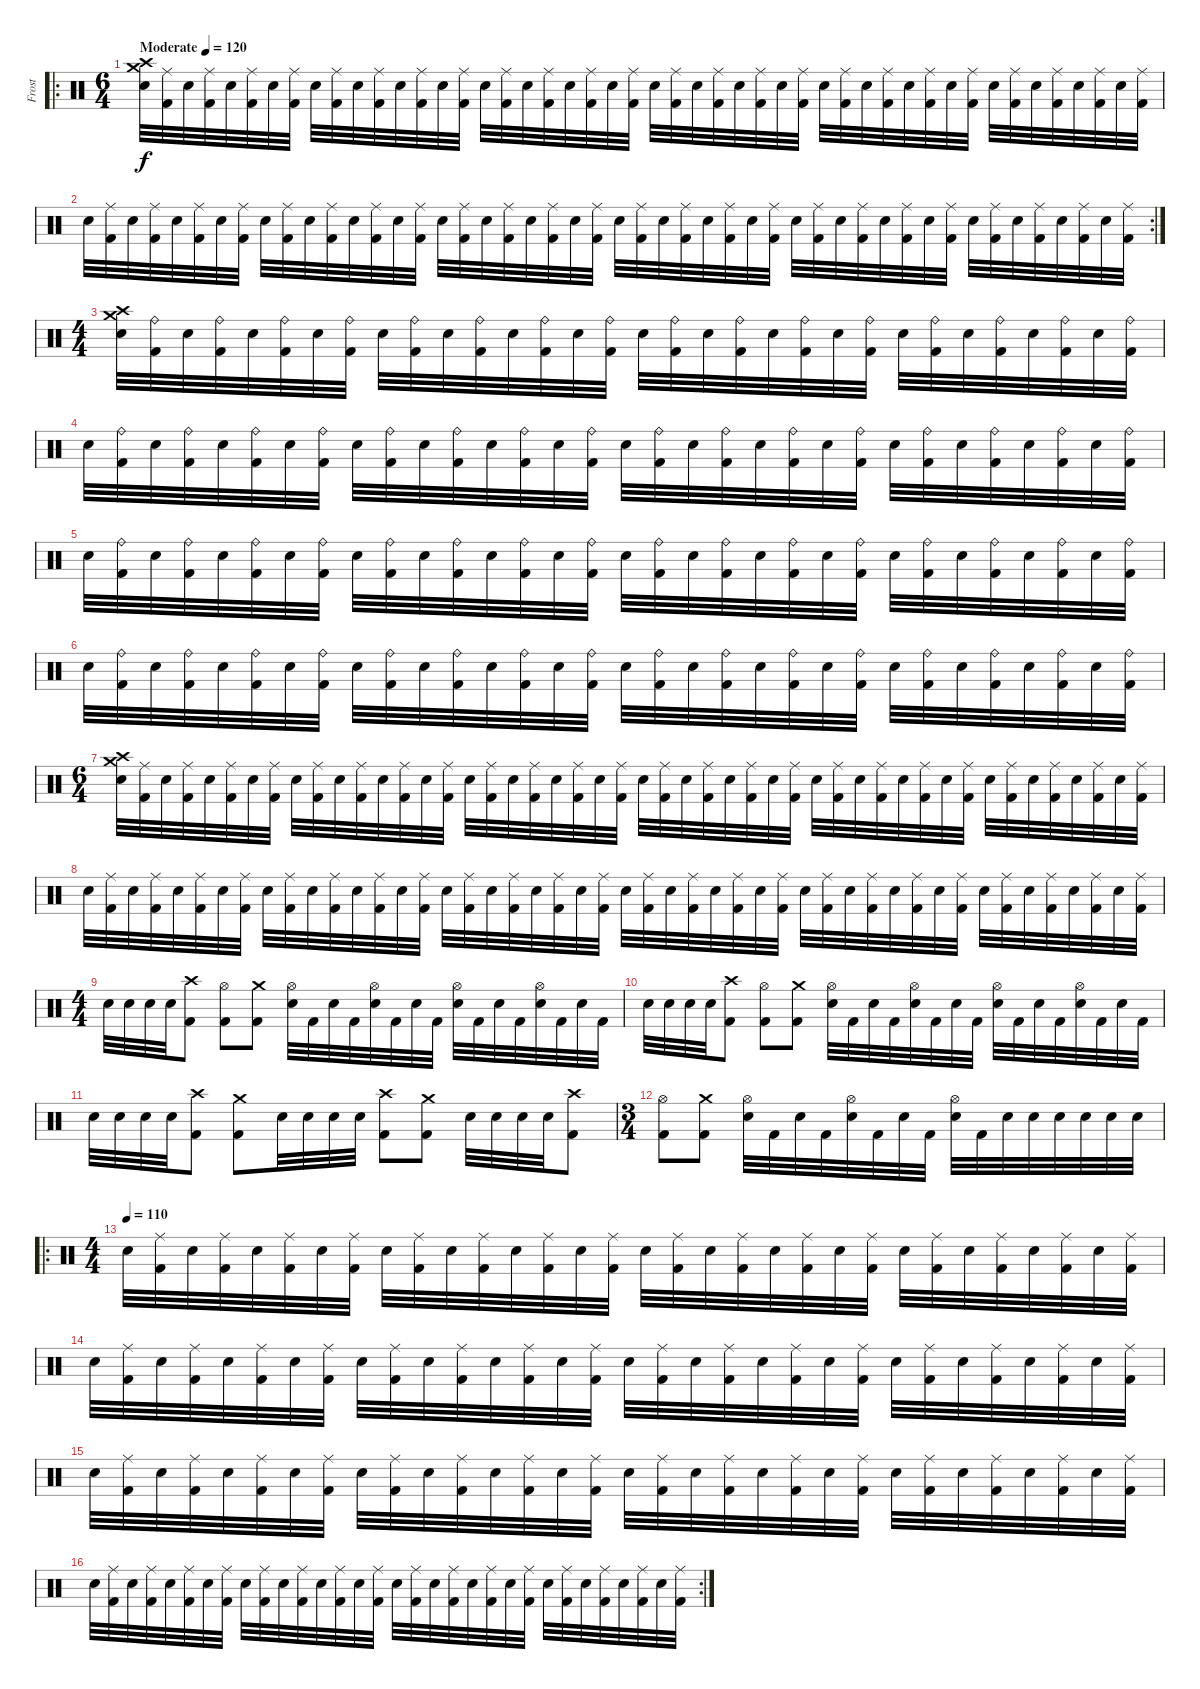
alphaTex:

\track ("Frost" "Frost") {instrument percussion}
\staff {score}
\articulation defaults
\ro
\ts (6 4)
\tempo (120 "Moderate")
\clef neutral
\ks c
("Crash high (hit)" "Crash medium (hit)" "Snare (hit) 2").32{dy f} ("Ride (middle)" "Kick (hit) 2").32 "Snare (hit) 2".32 ("Ride (middle)" "Kick (hit) 2").32 "Snare (hit) 2".32 ("Ride (middle)" "Kick (hit) 2").32 "Snare (hit) 2".32 ("Ride (middle)" "Kick (hit) 2").32 "Snare (hit) 2".32 ("Ride (middle)" "Kick (hit) 2").32 "Snare (hit) 2".32 ("Ride (middle)" "Kick (hit) 2").32 "Snare (hit) 2".32 ("Ride (middle)" "Kick (hit) 2").32 "Snare (hit) 2".32 ("Ride (middle)" "Kick (hit) 2").32 "Snare (hit) 2".32 ("Ride (middle)" "Kick (hit) 2").32 "Snare (hit) 2".32 ("Ride (middle)" "Kick (hit) 2").32 "Snare (hit) 2".32 ("Ride (middle)" "Kick (hit) 2").32 "Snare (hit) 2".32 ("Ride (middle)" "Kick (hit) 2").32 "Snare (hit) 2".32 ("Ride (middle)" "Kick (hit) 2").32 "Snare (hit) 2".32 ("Ride (middle)" "Kick (hit) 2").32 "Snare (hit) 2".32 ("Ride (middle)" "Kick (hit) 2").32 "Snare (hit) 2".32 ("Ride (middle)" "Kick (hit) 2").32 "Snare (hit) 2".32 ("Ride (middle)" "Kick (hit) 2").32 "Snare (hit) 2".32 ("Ride (middle)" "Kick (hit) 2").32 "Snare (hit) 2".32 ("Ride (middle)" "Kick (hit) 2").32 "Snare (hit) 2".32 ("Ride (middle)" "Kick (hit) 2").32 "Snare (hit) 2".32 ("Ride (middle)" "Kick (hit) 2").32 "Snare (hit) 2".32 ("Ride (middle)" "Kick (hit) 2").32 "Snare (hit) 2".32 ("Ride (middle)" "Kick (hit) 2").32 "Snare (hit) 2".32 ("Ride (middle)" "Kick (hit) 2").32 |
\rc 2 "Snare (hit) 2".32
("Ride (middle)" "Kick (hit) 2").32 "Snare (hit) 2".32 ("Ride (middle)" "Kick (hit) 2").32 "Snare (hit) 2".32 ("Ride (middle)" "Kick (hit) 2").32 "Snare (hit) 2".32 ("Ride (middle)" "Kick (hit) 2").32 "Snare (hit) 2".32 ("Ride (middle)" "Kick (hit) 2").32 "Snare (hit) 2".32 ("Ride (middle)" "Kick (hit) 2").32 "Snare (hit) 2".32 ("Ride (middle)" "Kick (hit) 2").32 "Snare (hit) 2".32 ("Ride (middle)" "Kick (hit) 2").32 "Snare (hit) 2".32 ("Ride (middle)" "Kick (hit) 2").32 "Snare (hit) 2".32 ("Ride (middle)" "Kick (hit) 2").32 "Snare (hit) 2".32 ("Ride (middle)" "Kick (hit) 2").32 "Snare (hit) 2".32 ("Ride (middle)" "Kick (hit) 2").32 "Snare (hit) 2".32 ("Ride (middle)" "Kick (hit) 2").32 "Snare (hit) 2".32 ("Ride (middle)" "Kick (hit) 2").32 "Snare (hit) 2".32 ("Ride (middle)" "Kick (hit) 2").32 "Snare (hit) 2".32 ("Ride (middle)" "Kick (hit) 2").32 "Snare (hit) 2".32 ("Ride (middle)" "Kick (hit) 2").32 "Snare (hit) 2".32 ("Ride (middle)" "Kick (hit) 2").32 "Snare (hit) 2".32 ("Ride (middle)" "Kick (hit) 2").32 "Snare (hit) 2".32 ("Ride (middle)" "Kick (hit) 2").32 "Snare (hit) 2".32 ("Ride (middle)" "Kick (hit) 2").32 "Snare (hit) 2".32 ("Ride (middle)" "Kick (hit) 2").32 "Snare (hit) 2".32 ("Ride (middle)" "Kick (hit) 2").32 "Snare (hit) 2".32 ("Ride (middle)" "Kick (hit) 2").32 |
\ts (4 4)
("Crash high (hit)" "Crash medium (hit)" "Snare (hit) 2").32 ("Ride (bell)" "Kick (hit) 2").32 "Snare (hit) 2".32 ("Ride (bell)" "Kick (hit) 2").32 "Snare (hit) 2".32 ("Ride (bell)" "Kick (hit) 2").32 "Snare (hit) 2".32 ("Ride (bell)" "Kick (hit) 2").32 "Snare (hit) 2".32 ("Ride (bell)" "Kick (hit) 2").32 "Snare (hit) 2".32 ("Ride (bell)" "Kick (hit) 2").32 "Snare (hit) 2".32 ("Ride (bell)" "Kick (hit) 2").32 "Snare (hit) 2".32 ("Ride (bell)" "Kick (hit) 2").32 "Snare (hit) 2".32 ("Ride (bell)" "Kick (hit) 2").32 "Snare (hit) 2".32 ("Ride (bell)" "Kick (hit) 2").32 "Snare (hit) 2".32 ("Ride (bell)" "Kick (hit) 2").32 "Snare (hit) 2".32 ("Ride (bell)" "Kick (hit) 2").32 "Snare (hit) 2".32 ("Ride (bell)" "Kick (hit) 2").32 "Snare (hit) 2".32 ("Ride (bell)" "Kick (hit) 2").32 "Snare (hit) 2".32 ("Ride (bell)" "Kick (hit) 2").32 "Snare (hit) 2".32 ("Ride (bell)" "Kick (hit) 2").32 |
"Snare (hit) 2".32 ("Ride (bell)" "Kick (hit) 2").32 "Snare (hit) 2".32 ("Ride (bell)" "Kick (hit) 2").32 "Snare (hit) 2".32 ("Ride (bell)" "Kick (hit) 2").32 "Snare (hit) 2".32 ("Ride (bell)" "Kick (hit) 2").32 "Snare (hit) 2".32 ("Ride (bell)" "Kick (hit) 2").32 "Snare (hit) 2".32 ("Ride (bell)" "Kick (hit) 2").32 "Snare (hit) 2".32 ("Ride (bell)" "Kick (hit) 2").32 "Snare (hit) 2".32 ("Ride (bell)" "Kick (hit) 2").32 "Snare (hit) 2".32 ("Ride (bell)" "Kick (hit) 2").32 "Snare (hit) 2".32 ("Ride (bell)" "Kick (hit) 2").32 "Snare (hit) 2".32 ("Ride (bell)" "Kick (hit) 2").32 "Snare (hit) 2".32 ("Ride (bell)" "Kick (hit) 2").32 "Snare (hit) 2".32 ("Ride (bell)" "Kick (hit) 2").32 "Snare (hit) 2".32 ("Ride (bell)" "Kick (hit) 2").32 "Snare (hit) 2".32 ("Ride (bell)" "Kick (hit) 2").32 "Snare (hit) 2".32 ("Ride (bell)" "Kick (hit) 2").32 |
"Snare (hit) 2".32 ("Ride (bell)" "Kick (hit) 2").32 "Snare (hit) 2".32 ("Ride (bell)" "Kick (hit) 2").32 "Snare (hit) 2".32 ("Ride (bell)" "Kick (hit) 2").32 "Snare (hit) 2".32 ("Ride (bell)" "Kick (hit) 2").32 "Snare (hit) 2".32 ("Ride (bell)" "Kick (hit) 2").32 "Snare (hit) 2".32 ("Ride (bell)" "Kick (hit) 2").32 "Snare (hit) 2".32 ("Ride (bell)" "Kick (hit) 2").32 "Snare (hit) 2".32 ("Ride (bell)" "Kick (hit) 2").32 "Snare (hit) 2".32 ("Ride (bell)" "Kick (hit) 2").32 "Snare (hit) 2".32 ("Ride (bell)" "Kick (hit) 2").32 "Snare (hit) 2".32 ("Ride (bell)" "Kick (hit) 2").32 "Snare (hit) 2".32 ("Ride (bell)" "Kick (hit) 2").32 "Snare (hit) 2".32 ("Ride (bell)" "Kick (hit) 2").32 "Snare (hit) 2".32 ("Ride (bell)" "Kick (hit) 2").32 "Snare (hit) 2".32 ("Ride (bell)" "Kick (hit) 2").32 "Snare (hit) 2".32 ("Ride (bell)" "Kick (hit) 2").32 |
"Snare (hit) 2".32 ("Ride (bell)" "Kick (hit) 2").32 "Snare (hit) 2".32 ("Ride (bell)" "Kick (hit) 2").32 "Snare (hit) 2".32 ("Ride (bell)" "Kick (hit) 2").32 "Snare (hit) 2".32 ("Ride (bell)" "Kick (hit) 2").32 "Snare (hit) 2".32 ("Ride (bell)" "Kick (hit) 2").32 "Snare (hit) 2".32 ("Ride (bell)" "Kick (hit) 2").32 "Snare (hit) 2".32 ("Ride (bell)" "Kick (hit) 2").32 "Snare (hit) 2".32 ("Ride (bell)" "Kick (hit) 2").32 "Snare (hit) 2".32 ("Ride (bell)" "Kick (hit) 2").32 "Snare (hit) 2".32 ("Ride (bell)" "Kick (hit) 2").32 "Snare (hit) 2".32 ("Ride (bell)" "Kick (hit) 2").32 "Snare (hit) 2".32 ("Ride (bell)" "Kick (hit) 2").32 "Snare (hit) 2".32 ("Ride (bell)" "Kick (hit) 2").32 "Snare (hit) 2".32 ("Ride (bell)" "Kick (hit) 2").32 "Snare (hit) 2".32 ("Ride (bell)" "Kick (hit) 2").32 "Snare (hit) 2".32 ("Ride (bell)" "Kick (hit) 2").32 |
\ts (6 4)
("Crash high (hit)" "Crash medium (hit)" "Snare (hit) 2").32 ("Ride (middle)" "Kick (hit) 2").32 "Snare (hit) 2".32 ("Ride (middle)" "Kick (hit) 2").32 "Snare (hit) 2".32 ("Ride (middle)" "Kick (hit) 2").32 "Snare (hit) 2".32 ("Ride (middle)" "Kick (hit) 2").32 "Snare (hit) 2".32 ("Ride (middle)" "Kick (hit) 2").32 "Snare (hit) 2".32 ("Ride (middle)" "Kick (hit) 2").32 "Snare (hit) 2".32 ("Ride (middle)" "Kick (hit) 2").32 "Snare (hit) 2".32 ("Ride (middle)" "Kick (hit) 2").32 "Snare (hit) 2".32 ("Ride (middle)" "Kick (hit) 2").32 "Snare (hit) 2".32 ("Ride (middle)" "Kick (hit) 2").32 "Snare (hit) 2".32 ("Ride (middle)" "Kick (hit) 2").32 "Snare (hit) 2".32 ("Ride (middle)" "Kick (hit) 2").32 "Snare (hit) 2".32 ("Ride (middle)" "Kick (hit) 2").32 "Snare (hit) 2".32 ("Ride (middle)" "Kick (hit) 2").32 "Snare (hit) 2".32 ("Ride (middle)" "Kick (hit) 2").32 "Snare (hit) 2".32 ("Ride (middle)" "Kick (hit) 2").32 "Snare (hit) 2".32 ("Ride (middle)" "Kick (hit) 2").32 "Snare (hit) 2".32 ("Ride (middle)" "Kick (hit) 2").32 "Snare (hit) 2".32 ("Ride (middle)" "Kick (hit) 2").32 "Snare (hit) 2".32 ("Ride (middle)" "Kick (hit) 2").32 "Snare (hit) 2".32 ("Ride (middle)" "Kick (hit) 2").32 "Snare (hit) 2".32 ("Ride (middle)" "Kick (hit) 2").32 "Snare (hit) 2".32 ("Ride (middle)" "Kick (hit) 2").32 "Snare (hit) 2".32 ("Ride (middle)" "Kick (hit) 2").32 |
"Snare (hit) 2".32 ("Ride (middle)" "Kick (hit) 2").32 "Snare (hit) 2".32 ("Ride (middle)" "Kick (hit) 2").32 "Snare (hit) 2".32 ("Ride (middle)" "Kick (hit) 2").32 "Snare (hit) 2".32 ("Ride (middle)" "Kick (hit) 2").32 "Snare (hit) 2".32 ("Ride (middle)" "Kick (hit) 2").32 "Snare (hit) 2".32 ("Ride (middle)" "Kick (hit) 2").32 "Snare (hit) 2".32 ("Ride (middle)" "Kick (hit) 2").32 "Snare (hit) 2".32 ("Ride (middle)" "Kick (hit) 2").32 "Snare (hit) 2".32 ("Ride (middle)" "Kick (hit) 2").32 "Snare (hit) 2".32 ("Ride (middle)" "Kick (hit) 2").32 "Snare (hit) 2".32 ("Ride (middle)" "Kick (hit) 2").32 "Snare (hit) 2".32 ("Ride (middle)" "Kick (hit) 2").32 "Snare (hit) 2".32 ("Ride (middle)" "Kick (hit) 2").32 "Snare (hit) 2".32 ("Ride (middle)" "Kick (hit) 2").32 "Snare (hit) 2".32 ("Ride (middle)" "Kick (hit) 2").32 "Snare (hit) 2".32 ("Ride (middle)" "Kick (hit) 2").32 "Snare (hit) 2".32 ("Ride (middle)" "Kick (hit) 2").32 "Snare (hit) 2".32 ("Ride (middle)" "Kick (hit) 2").32 "Snare (hit) 2".32 ("Ride (middle)" "Kick (hit) 2").32 "Snare (hit) 2".32 ("Ride (middle)" "Kick (hit) 2").32 "Snare (hit) 2".32 ("Ride (middle)" "Kick (hit) 2").32 "Snare (hit) 2".32 ("Ride (middle)" "Kick (hit) 2").32 "Snare (hit) 2".32 ("Ride (middle)" "Kick (hit) 2").32 "Snare (hit) 2".32 ("Ride (middle)" "Kick (hit) 2").32 |
\ts (4 4)
"Snare (hit) 2".32 "Snare (hit) 2".32 "Snare (hit) 2".32 "Snare (hit) 2".32 ("Crash high (hit)" "Kick (hit) 2").8 ("Hi-Hat (open)" "Kick (hit) 2").8 ("Crash medium (hit)" "Kick (hit) 2").8 ("Hi-Hat (open)" "Snare (hit) 2").32 "Kick (hit) 2".32 "Snare (hit) 2".32 "Kick (hit) 2".32 ("Hi-Hat (open)" "Snare (hit) 2").32 "Kick (hit) 2".32 "Snare (hit) 2".32 "Kick (hit) 2".32 ("Hi-Hat (open)" "Snare (hit) 2").32 "Kick (hit) 2".32 "Snare (hit) 2".32 "Kick (hit) 2".32 ("Hi-Hat (open)" "Snare (hit) 2").32 "Kick (hit) 2".32 "Snare (hit) 2".32 "Kick (hit) 2".32 |
"Snare (hit) 2".32 "Snare (hit) 2".32 "Snare (hit) 2".32 "Snare (hit) 2".32 ("Crash high (hit)" "Kick (hit) 2").8 ("Hi-Hat (open)" "Kick (hit) 2").8 ("Crash medium (hit)" "Kick (hit) 2").8 ("Hi-Hat (open)" "Snare (hit) 2").32 "Kick (hit) 2".32 "Snare (hit) 2".32 "Kick (hit) 2".32 ("Hi-Hat (open)" "Snare (hit) 2").32 "Kick (hit) 2".32 "Snare (hit) 2".32 "Kick (hit) 2".32 ("Hi-Hat (open)" "Snare (hit) 2").32 "Kick (hit) 2".32 "Snare (hit) 2".32 "Kick (hit) 2".32 ("Hi-Hat (open)" "Snare (hit) 2").32 "Kick (hit) 2".32 "Snare (hit) 2".32 "Kick (hit) 2".32 |
"Snare (hit) 2".32 "Snare (hit) 2".32 "Snare (hit) 2".32 "Snare (hit) 2".32 ("Crash high (hit)" "Kick (hit) 2").8 ("Crash medium (hit)" "Kick (hit) 2").8 "Snare (hit) 2".32 "Snare (hit) 2".32 "Snare (hit) 2".32 "Snare (hit) 2".32 ("Crash high (hit)" "Kick (hit) 2").8 ("Crash medium (hit)" "Kick (hit) 2").8 "Snare (hit) 2".32 "Snare (hit) 2".32 "Snare (hit) 2".32 "Snare (hit) 2".32 ("Crash high (hit)" "Kick (hit) 2").8 |
\ts (3 4)
("Hi-Hat (open)" "Kick (hit) 2").8 ("Crash medium (hit)" "Kick (hit) 2").8 ("Hi-Hat (open)" "Snare (hit) 2").32 "Kick (hit) 2".32 "Snare (hit) 2".32 "Kick (hit) 2".32 ("Hi-Hat (open)" "Snare (hit) 2").32 "Kick (hit) 2".32 "Snare (hit) 2".32 "Kick (hit) 2".32 ("Hi-Hat (open)" "Snare (hit) 2").32 "Kick (hit) 2".32 "Snare (hit)".32 "Snare (hit)".32 "Snare (hit)".32 "Snare (hit)".32 "Snare (hit)".32 "Snare (hit)".32 |
\ro
\ts (4 4)
\tempo (110)
"Snare (hit) 2".32 ("Ride (middle)" "Kick (hit) 2").32 "Snare (hit) 2".32 ("Ride (middle)" "Kick (hit) 2").32 "Snare (hit) 2".32 ("Ride (middle)" "Kick (hit) 2").32 "Snare (hit) 2".32 ("Ride (middle)" "Kick (hit) 2").32 "Snare (hit) 2".32 ("Ride (middle)" "Kick (hit) 2").32 "Snare (hit) 2".32 ("Ride (middle)" "Kick (hit) 2").32 "Snare (hit) 2".32 ("Ride (middle)" "Kick (hit) 2").32 "Snare (hit) 2".32 ("Ride (middle)" "Kick (hit) 2").32 "Snare (hit) 2".32 ("Ride (middle)" "Kick (hit) 2").32 "Snare (hit) 2".32 ("Ride (middle)" "Kick (hit) 2").32 "Snare (hit) 2".32 ("Ride (middle)" "Kick (hit) 2").32 "Snare (hit) 2".32 ("Ride (middle)" "Kick (hit) 2").32 "Snare (hit) 2".32 ("Ride (middle)" "Kick (hit) 2").32 "Snare (hit) 2".32 ("Ride (middle)" "Kick (hit) 2").32 "Snare (hit) 2".32 ("Ride (middle)" "Kick (hit) 2").32 "Snare (hit) 2".32 ("Ride (middle)" "Kick (hit) 2").32 |
"Snare (hit) 2".32 ("Ride (middle)" "Kick (hit) 2").32 "Snare (hit) 2".32 ("Ride (middle)" "Kick (hit) 2").32 "Snare (hit) 2".32 ("Ride (middle)" "Kick (hit) 2").32 "Snare (hit) 2".32 ("Ride (middle)" "Kick (hit) 2").32 "Snare (hit) 2".32 ("Ride (middle)" "Kick (hit) 2").32 "Snare (hit) 2".32 ("Ride (middle)" "Kick (hit) 2").32 "Snare (hit) 2".32 ("Ride (middle)" "Kick (hit) 2").32 "Snare (hit) 2".32 ("Ride (middle)" "Kick (hit) 2").32 "Snare (hit) 2".32 ("Ride (middle)" "Kick (hit) 2").32 "Snare (hit) 2".32 ("Ride (middle)" "Kick (hit) 2").32 "Snare (hit) 2".32 ("Ride (middle)" "Kick (hit) 2").32 "Snare (hit) 2".32 ("Ride (middle)" "Kick (hit) 2").32 "Snare (hit) 2".32 ("Ride (middle)" "Kick (hit) 2").32 "Snare (hit) 2".32 ("Ride (middle)" "Kick (hit) 2").32 "Snare (hit) 2".32 ("Ride (middle)" "Kick (hit) 2").32 "Snare (hit) 2".32 ("Ride (middle)" "Kick (hit) 2").32 |
"Snare (hit) 2".32 ("Ride (middle)" "Kick (hit) 2").32 "Snare (hit) 2".32 ("Ride (middle)" "Kick (hit) 2").32 "Snare (hit) 2".32 ("Ride (middle)" "Kick (hit) 2").32 "Snare (hit) 2".32 ("Ride (middle)" "Kick (hit) 2").32 "Snare (hit) 2".32 ("Ride (middle)" "Kick (hit) 2").32 "Snare (hit) 2".32 ("Ride (middle)" "Kick (hit) 2").32 "Snare (hit) 2".32 ("Ride (middle)" "Kick (hit) 2").32 "Snare (hit) 2".32 ("Ride (middle)" "Kick (hit) 2").32 "Snare (hit) 2".32 ("Ride (middle)" "Kick (hit) 2").32 "Snare (hit) 2".32 ("Ride (middle)" "Kick (hit) 2").32 "Snare (hit) 2".32 ("Ride (middle)" "Kick (hit) 2").32 "Snare (hit) 2".32 ("Ride (middle)" "Kick (hit) 2").32 "Snare (hit) 2".32 ("Ride (middle)" "Kick (hit) 2").32 "Snare (hit) 2".32 ("Ride (middle)" "Kick (hit) 2").32 "Snare (hit) 2".32 ("Ride (middle)" "Kick (hit) 2").32 "Snare (hit) 2".32 ("Ride (middle)" "Kick (hit) 2").32 |
\rc 2 "Snare (hit) 2".32
("Ride (middle)" "Kick (hit) 2").32 "Snare (hit) 2".32 ("Ride (middle)" "Kick (hit) 2").32 "Snare (hit) 2".32 ("Ride (middle)" "Kick (hit) 2").32 "Snare (hit) 2".32 ("Ride (middle)" "Kick (hit) 2").32 "Snare (hit) 2".32 ("Ride (middle)" "Kick (hit) 2").32 "Snare (hit) 2".32 ("Ride (middle)" "Kick (hit) 2").32 "Snare (hit) 2".32 ("Ride (middle)" "Kick (hit) 2").32 "Snare (hit) 2".32 ("Ride (middle)" "Kick (hit) 2").32 "Snare (hit) 2".32 ("Ride (middle)" "Kick (hit) 2").32 "Snare (hit) 2".32 ("Ride (middle)" "Kick (hit) 2").32 "Snare (hit) 2".32 ("Ride (middle)" "Kick (hit) 2").32 "Snare (hit) 2".32 ("Ride (middle)" "Kick (hit) 2").32 "Snare (hit) 2".32 ("Ride (middle)" "Kick (hit) 2").32 "Snare (hit) 2".32 ("Ride (middle)" "Kick (hit) 2").32 "Snare (hit) 2".32 ("Ride (middle)" "Kick (hit) 2").32 "Snare (hit) 2".32 ("Ride (middle)" "Kick (hit) 2").32
